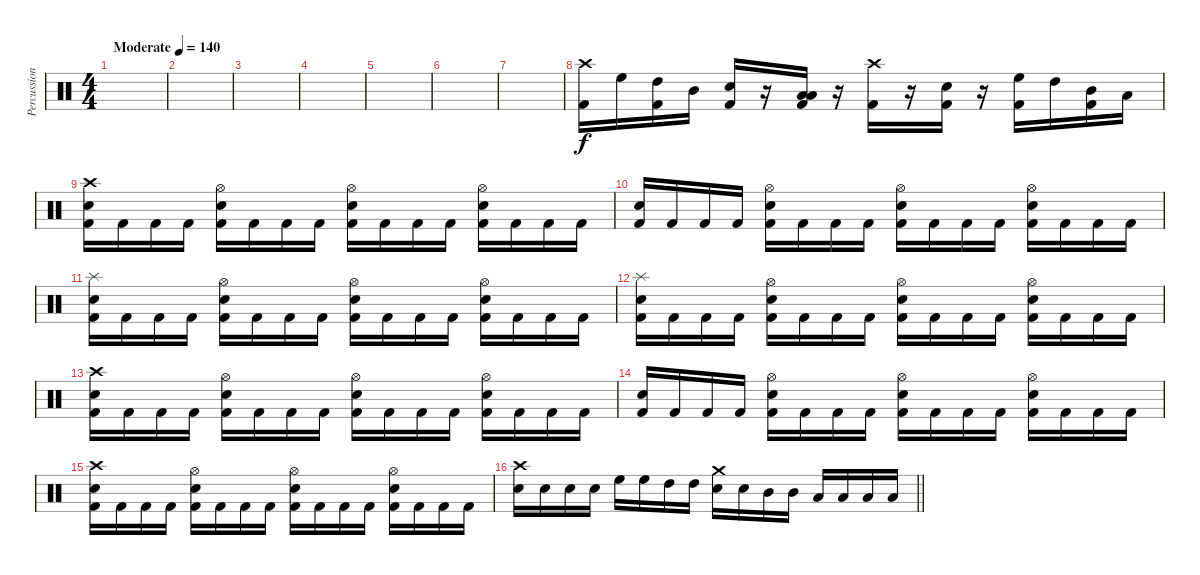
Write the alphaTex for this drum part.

\track ("Percussion" "Percussion") {instrument percussion}
\staff {score}
\articulation defaults
\ts (4 4)
\tempo (140 "Moderate")
\clef neutral
\ks c
|
|
|
|
|
|
|
("Crash high (hit)" "Kick (hit) 2").16 "High Floor Tom (hit)".16 ("High Tom (hit)" "Kick (hit) 2").16 "Mid Tom (hit)".16 ("Snare (hit) 2" "Kick (hit) 2").16 r.16 ("Low Tom (hit)" "Low Floor Tom (hit)" "Kick (hit) 2").16 r.16 ("Crash high (hit)" "Kick (hit) 2").16 r.16 ("Snare (hit) 2" "Kick (hit) 2").16 r.16 ("High Floor Tom (hit)" "Kick (hit) 2").16 "High Tom (hit)".16 ("Mid Tom (hit)" "Kick (hit) 2").16 "Low Tom (hit)".16 |
("Crash high (hit)" "Snare (hit) 2" "Kick (hit) 2").16 "Kick (hit) 2".16 "Kick (hit) 2".16 "Kick (hit) 2".16 ("Hi-Hat (open)" "Snare (hit) 2" "Kick (hit) 2").16 "Kick (hit) 2".16 "Kick (hit) 2".16 "Kick (hit) 2".16 ("Hi-Hat (open)" "Snare (hit) 2" "Kick (hit) 2").16 "Kick (hit) 2".16 "Kick (hit) 2".16 "Kick (hit) 2".16 ("Hi-Hat (open)" "Snare (hit) 2" "Kick (hit) 2").16 "Kick (hit) 2".16 "Kick (hit) 2".16 "Kick (hit) 2".16 |
("Snare (hit) 2" "Kick (hit) 2").16 "Kick (hit) 2".16 "Kick (hit) 2".16 "Kick (hit) 2".16 ("Hi-Hat (open)" "Snare (hit) 2" "Kick (hit) 2").16 "Kick (hit) 2".16 "Kick (hit) 2".16 "Kick (hit) 2".16 ("Hi-Hat (open)" "Snare (hit) 2" "Kick (hit) 2").16 "Kick (hit) 2".16 "Kick (hit) 2".16 "Kick (hit) 2".16 ("Hi-Hat (open)" "Snare (hit) 2" "Kick (hit) 2").16 "Kick (hit) 2".16 "Kick (hit) 2".16 "Kick (hit) 2".16 |
("Splash (hit)" "Snare (hit) 2" "Kick (hit) 2").16 "Kick (hit) 2".16 "Kick (hit) 2".16 "Kick (hit) 2".16 ("Hi-Hat (open)" "Snare (hit) 2" "Kick (hit) 2").16 "Kick (hit) 2".16 "Kick (hit) 2".16 "Kick (hit) 2".16 ("Hi-Hat (open)" "Snare (hit) 2" "Kick (hit) 2").16 "Kick (hit) 2".16 "Kick (hit) 2".16 "Kick (hit) 2".16 ("Hi-Hat (open)" "Snare (hit) 2" "Kick (hit) 2").16 "Kick (hit) 2".16 "Kick (hit) 2".16 "Kick (hit) 2".16 |
("Splash (hit)" "Snare (hit) 2" "Kick (hit) 2").16 "Kick (hit) 2".16 "Kick (hit) 2".16 "Kick (hit) 2".16 ("Hi-Hat (open)" "Snare (hit) 2" "Kick (hit) 2").16 "Kick (hit) 2".16 "Kick (hit) 2".16 "Kick (hit) 2".16 ("Hi-Hat (open)" "Snare (hit) 2" "Kick (hit) 2").16 "Kick (hit) 2".16 "Kick (hit) 2".16 "Kick (hit) 2".16 ("Hi-Hat (open)" "Snare (hit) 2" "Kick (hit) 2").16 "Kick (hit) 2".16 "Kick (hit) 2".16 "Kick (hit) 2".16 |
("Crash high (hit)" "Snare (hit) 2" "Kick (hit) 2").16 "Kick (hit) 2".16 "Kick (hit) 2".16 "Kick (hit) 2".16 ("Hi-Hat (open)" "Snare (hit) 2" "Kick (hit) 2").16 "Kick (hit) 2".16 "Kick (hit) 2".16 "Kick (hit) 2".16 ("Hi-Hat (open)" "Snare (hit) 2" "Kick (hit) 2").16 "Kick (hit) 2".16 "Kick (hit) 2".16 "Kick (hit) 2".16 ("Hi-Hat (open)" "Snare (hit) 2" "Kick (hit) 2").16 "Kick (hit) 2".16 "Kick (hit) 2".16 "Kick (hit) 2".16 |
("Snare (hit) 2" "Kick (hit) 2").16 "Kick (hit) 2".16 "Kick (hit) 2".16 "Kick (hit) 2".16 ("Hi-Hat (open)" "Snare (hit) 2" "Kick (hit) 2").16 "Kick (hit) 2".16 "Kick (hit) 2".16 "Kick (hit) 2".16 ("Hi-Hat (open)" "Snare (hit) 2" "Kick (hit) 2").16 "Kick (hit) 2".16 "Kick (hit) 2".16 "Kick (hit) 2".16 ("Hi-Hat (open)" "Snare (hit) 2" "Kick (hit) 2").16 "Kick (hit) 2".16 "Kick (hit) 2".16 "Kick (hit) 2".16 |
("Crash high (hit)" "Snare (hit) 2" "Kick (hit) 2").16 "Kick (hit) 2".16 "Kick (hit) 2".16 "Kick (hit) 2".16 ("Hi-Hat (open)" "Snare (hit) 2" "Kick (hit) 2").16 "Kick (hit) 2".16 "Kick (hit) 2".16 "Kick (hit) 2".16 ("Hi-Hat (open)" "Snare (hit) 2" "Kick (hit) 2").16 "Kick (hit) 2".16 "Kick (hit) 2".16 "Kick (hit) 2".16 ("Hi-Hat (open)" "Snare (hit) 2" "Kick (hit) 2").16 "Kick (hit) 2".16 "Kick (hit) 2".16 "Kick (hit) 2".16 |
\barLineRight lightlight
("Crash high (hit)" "Snare (hit) 2").16 "Snare (hit) 2".16 "Snare (hit) 2".16 "Snare (hit) 2".16 "High Floor Tom (hit)".16 "High Floor Tom (hit)".16 "High Tom (hit)".16 "High Tom (hit)".16 ("Crash medium (hit)" "Snare (hit) 2").16 "Snare (hit) 2".16 "Mid Tom (hit)".16 "Mid Tom (hit)".16 "Low Tom (hit)".16 "Low Tom (hit)".16 "Low Floor Tom (hit)".16 "Low Floor Tom (hit)".16
